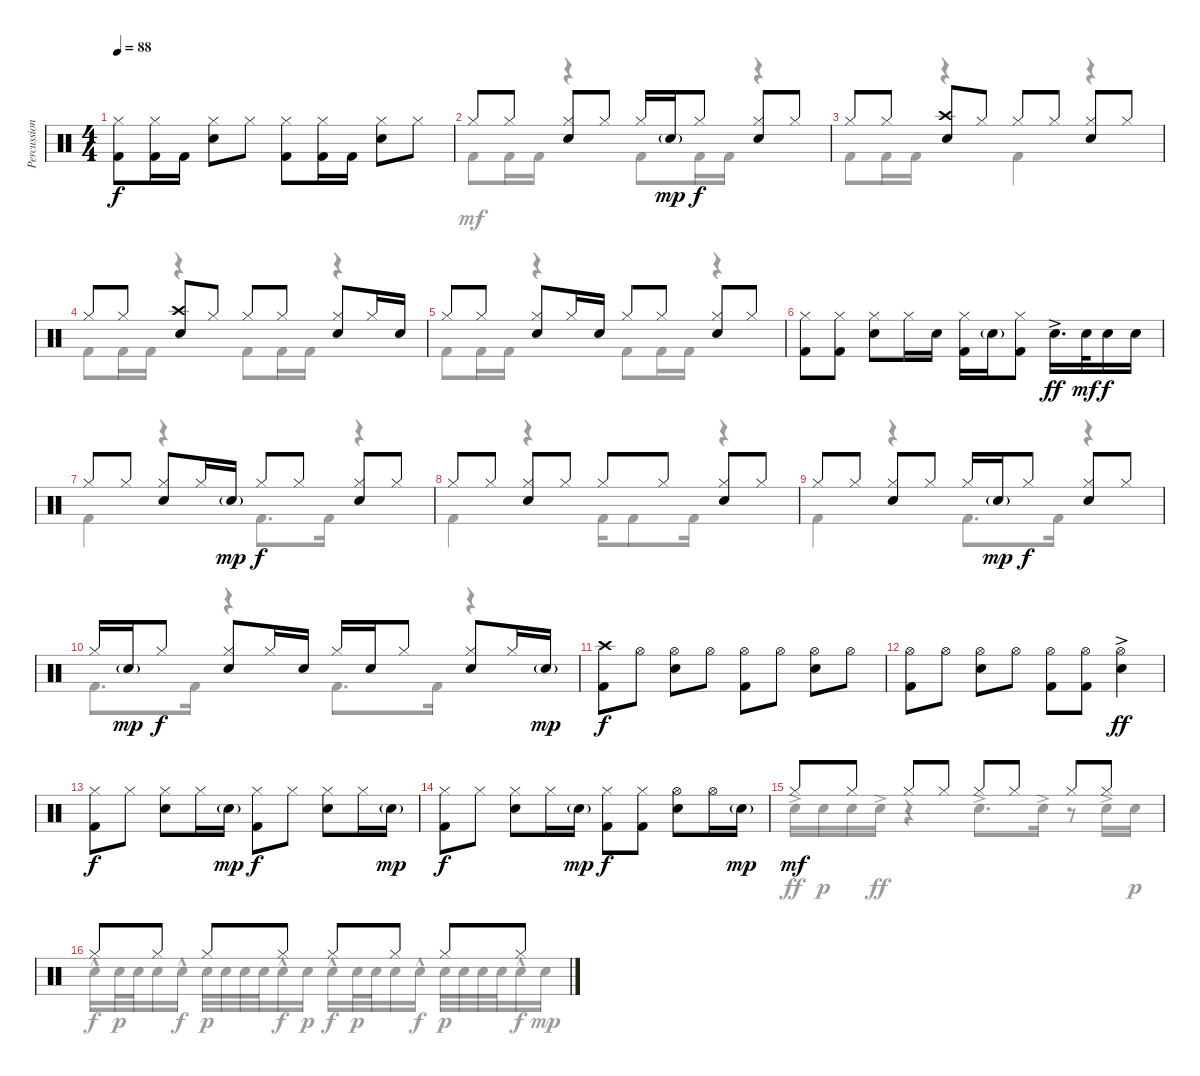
\track ("Percussion" "Percussion") {instrument percussion}
\staff {score}
\articulation defaults
\voice
\ts (4 4)
\tempo 88
\clef neutral
\ks aminor
("Hi-Hat (closed)" "Kick (hit) 2").8{dy f} ("Hi-Hat (closed)" "Kick (hit) 2").16 "Kick (hit) 2".16 ("Hi-Hat (closed)" "Snare (hit) 2").8 "Hi-Hat (closed)".8 ("Hi-Hat (closed)" "Kick (hit) 2").8 ("Hi-Hat (closed)" "Kick (hit) 2").16 "Kick (hit) 2".16 ("Hi-Hat (closed)" "Snare (hit) 2").8 "Hi-Hat (closed)".8 |
"Hi-Hat (closed)".8 "Hi-Hat (closed)".8 ("Hi-Hat (closed)" "Snare (hit) 2").8 "Hi-Hat (closed)".8 "Hi-Hat (closed)".16 "Snare (hit) 2"{g}.16{dy mp} "Hi-Hat (closed)".8{dy f} ("Hi-Hat (closed)" "Snare (hit) 2").8 "Hi-Hat (closed)".8 |
"Hi-Hat (closed)".8 "Hi-Hat (closed)".8 ("Crash high (hit)" "Snare (hit) 2").8 "Hi-Hat (closed)".8 "Hi-Hat (closed)".8 "Hi-Hat (closed)".8 ("Hi-Hat (closed)" "Snare (hit) 2").8 "Hi-Hat (closed)".8 |
"Hi-Hat (closed)".8 "Hi-Hat (closed)".8 ("Crash high (hit)" "Snare (hit) 2").8 "Hi-Hat (closed)".8 "Hi-Hat (closed)".8 "Hi-Hat (closed)".8 ("Hi-Hat (closed)" "Snare (hit) 2").8 "Hi-Hat (closed)".16 "Snare (hit) 2".16 |
"Hi-Hat (closed)".8 "Hi-Hat (closed)".8 ("Hi-Hat (closed)" "Snare (hit) 2").8 "Hi-Hat (closed)".16 "Snare (hit) 2".16 "Hi-Hat (closed)".8 "Hi-Hat (closed)".8 ("Hi-Hat (closed)" "Snare (hit) 2").8 "Hi-Hat (closed)".8 |
("Hi-Hat (closed)" "Kick (hit) 2").8 ("Hi-Hat (closed)" "Kick (hit) 2").8 ("Hi-Hat (closed)" "Snare (hit) 2").8 "Hi-Hat (closed)".16 "Snare (hit) 2".16 ("Hi-Hat (closed)" "Kick (hit) 2").16 "Snare (hit) 2"{g}.16 ("Hi-Hat (closed)" "Kick (hit) 2").8 "Snare (hit) 2"{ac}.16{d dy ff} "Snare (hit) 2".32{dy mf} "Snare (hit) 2".16{dy f} "Snare (hit) 2".16 |
"Hi-Hat (closed)".8 "Hi-Hat (closed)".8 ("Hi-Hat (closed)" "Snare (hit) 2").8 "Hi-Hat (closed)".16 "Snare (hit) 2"{g}.16{dy mp} "Hi-Hat (closed)".8{dy f} "Hi-Hat (closed)".8 ("Hi-Hat (closed)" "Snare (hit) 2").8 "Hi-Hat (closed)".8 |
"Hi-Hat (closed)".8 "Hi-Hat (closed)".8 ("Hi-Hat (closed)" "Snare (hit) 2").8 "Hi-Hat (closed)".8 "Hi-Hat (closed)".8 "Hi-Hat (closed)".8 ("Hi-Hat (closed)" "Snare (hit) 2").8 "Hi-Hat (closed)".8 |
"Hi-Hat (closed)".8 "Hi-Hat (closed)".8 ("Hi-Hat (closed)" "Snare (hit) 2").8 "Hi-Hat (closed)".8 "Hi-Hat (closed)".16 "Snare (hit) 2"{g}.16{dy mp} "Hi-Hat (closed)".8{dy f} ("Hi-Hat (closed)" "Snare (hit) 2").8 "Hi-Hat (closed)".8 |
"Hi-Hat (closed)".16 "Snare (hit) 2"{g}.16{dy mp} "Hi-Hat (closed)".8{dy f} ("Hi-Hat (closed)" "Snare (hit) 2").8 "Hi-Hat (closed)".16 "Snare (hit) 2".16 "Hi-Hat (closed)".16 "Snare (hit) 2".16 "Hi-Hat (closed)".8 ("Hi-Hat (closed)" "Snare (hit) 2").8 "Hi-Hat (closed)".16 "Snare (hit) 2"{g}.16{dy mp} |
("Crash high (hit)" "Kick (hit) 2").8{dy f} "Hi-Hat (open)".8 ("Hi-Hat (open)" "Snare (hit) 2").8 "Hi-Hat (open)".8 ("Hi-Hat (open)" "Kick (hit) 2").8 "Hi-Hat (open)".8 ("Hi-Hat (open)" "Snare (hit) 2").8 "Hi-Hat (open)".8 |
("Hi-Hat (open)" "Kick (hit) 2").8 "Hi-Hat (open)".8 ("Hi-Hat (open)" "Snare (hit) 2").8 "Hi-Hat (open)".8 ("Hi-Hat (open)" "Kick (hit) 2").8 ("Hi-Hat (open)" "Kick (hit) 2").8 ("Hi-Hat (open)" "Snare (hit) 2"{ac}).4{dy ff} |
("Hi-Hat (closed)" "Kick (hit) 2").8{dy f} "Hi-Hat (closed)".8 ("Hi-Hat (closed)" "Snare (hit) 2").8 "Hi-Hat (closed)".16 "Snare (hit) 2"{g}.16{dy mp} ("Hi-Hat (closed)" "Kick (hit) 2").8{dy f} "Hi-Hat (closed)".8 ("Hi-Hat (closed)" "Snare (hit) 2").8 "Hi-Hat (closed)".16 "Snare (hit) 2"{g}.16{dy mp} |
("Hi-Hat (closed)" "Kick (hit) 2").8{dy f} "Hi-Hat (closed)".8 ("Hi-Hat (closed)" "Snare (hit) 2").8 "Hi-Hat (closed)".16 "Snare (hit) 2"{g}.16{dy mp} ("Hi-Hat (closed)" "Kick (hit) 2").8{dy f} ("Hi-Hat (closed)" "Kick (hit) 2").8 ("Hi-Hat (open)" "Snare (hit) 2").8 "Hi-Hat (open)".16 "Snare (hit) 2"{g}.16{dy mp} |
"Hi-Hat (closed)".8{dy mf} "Hi-Hat (closed)".8 "Hi-Hat (closed)".8 "Hi-Hat (closed)".8 "Hi-Hat (closed)".8 "Hi-Hat (closed)".8 "Hi-Hat (closed)".8 "Hi-Hat (closed)".8 |
"Hi-Hat (closed)".8 "Hi-Hat (closed)".8 "Hi-Hat (closed)".8 "Hi-Hat (closed)".8 "Hi-Hat (closed)".8 "Hi-Hat (closed)".8 "Hi-Hat (closed)".8 "Hi-Hat (closed)".8
\voice
\clef neutral
\ottava regular
\simile none
\ks aminor
|
"Kick (hit) 2".8 "Kick (hit) 2".16 "Kick (hit) 2".16 r.4 "Kick (hit) 2".8 "Kick (hit) 2".16 "Kick (hit) 2".16 r.4 |
"Kick (hit) 2".8 "Kick (hit) 2".16 "Kick (hit) 2".16 r.4 "Kick (hit) 2".4 r.4 |
"Kick (hit) 2".8 "Kick (hit) 2".16 "Kick (hit) 2".16 r.4 "Kick (hit) 2".8 "Kick (hit) 2".16 "Kick (hit) 2".16 r.4 |
"Kick (hit) 2".8 "Kick (hit) 2".16 "Kick (hit) 2".16 r.4 "Kick (hit) 2".8 "Kick (hit) 2".16 "Kick (hit) 2".16 r.4 |
|
"Kick (hit) 2".4 r.4 "Kick (hit) 2".8{d} "Kick (hit) 2".16 r.4 |
"Kick (hit) 2".4 r.4 "Kick (hit) 2".16 "Kick (hit) 2".8 "Kick (hit) 2".16 r.4 |
"Kick (hit) 2".4 r.4 "Kick (hit) 2".8{d} "Kick (hit) 2".16 r.4 |
"Kick (hit) 2".8{d} "Kick (hit) 2".16 r.4 "Kick (hit) 2".8{d} "Kick (hit) 2".16 r.4 |
|
|
|
|
"Snare (hit) 2"{ac}.16{dy ff} "Snare (hit) 2".16{dy p} "Snare (hit) 2".16 "Snare (hit) 2"{ac}.16{dy ff} r.4 "Snare (hit) 2"{ac}.8{d} "Snare (hit) 2"{ac}.16 r.8 "Snare (hit) 2"{ac}.16 "Snare (hit) 2".16{dy p} |
"Snare (hit) 2"{hac}.16{dy f} "Snare (hit) 2".32{dy p} "Snare (hit) 2".32 "Snare (hit) 2".16 "Snare (hit) 2"{hac}.16{dy f} "Snare (hit) 2".32{dy p} "Snare (hit) 2".32 "Snare (hit) 2".32 "Snare (hit) 2".32 "Snare (hit) 2"{hac}.16{dy f} "Snare (hit) 2".16{dy p} "Snare (hit) 2"{hac}.16{dy f} "Snare (hit) 2".32{dy p} "Snare (hit) 2".32 "Snare (hit) 2".16 "Snare (hit) 2"{hac}.16{dy f} "Snare (hit) 2".32{dy p} "Snare (hit) 2".32 "Snare (hit) 2".32 "Snare (hit) 2".32 "Snare (hit) 2"{hac}.16{dy f} "Snare (hit) 2".16{dy mp}
